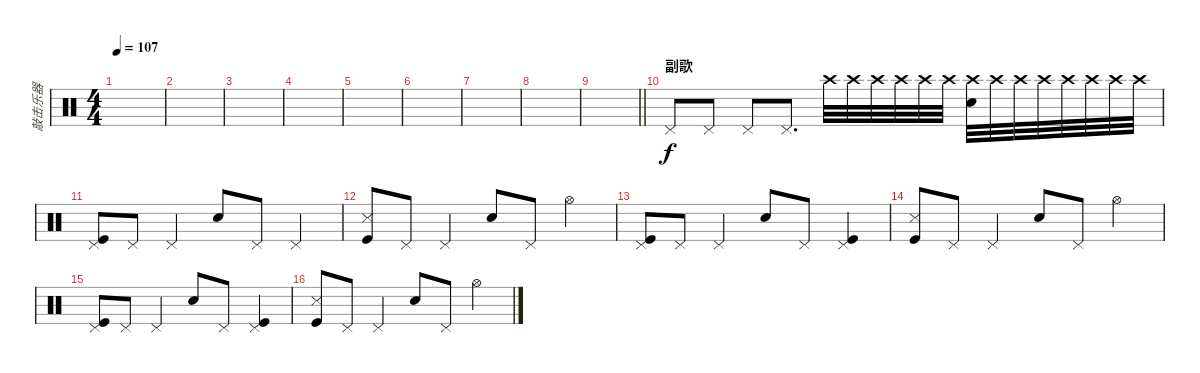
\track ("敲击乐器" "敲击乐器") {instrument percussion}
\staff {score}
\articulation defaults
\ts (4 4)
\tempo 107
\clef neutral
\ks c
|
|
|
|
|
|
|
|
\barLineRight lightlight
|
\section ("" "副歌")
"Pedal Hi-Hat (hit)".8{dy f} "Pedal Hi-Hat (hit)".8 "Pedal Hi-Hat (hit)".8 "Pedal Hi-Hat (hit)".8{d} "Crash high (hit)".32{volume 0} "Crash high (hit)".32{volume 16} "Crash high (hit)".32 "Crash high (hit)".32 "Crash high (hit)".32 "Crash high (hit)".32 ("Crash high (hit)" "Snare (hit) 2").32 "Crash high (hit)".32 "Crash high (hit)".32 "Crash high (hit)".32 "Crash high (hit)".32 "Crash high (hit)".32 "Crash high (hit)".32 "Crash high (hit)".32 |
("Kick (hit)" "Pedal Hi-Hat (hit)").8 "Pedal Hi-Hat (hit)".8 "Pedal Hi-Hat (hit)".4 "Snare (hit) 2".8 "Pedal Hi-Hat (hit)".8 "Pedal Hi-Hat (hit)".4 |
("Kick (hit)" "Snare (side stick) 3").8 "Pedal Hi-Hat (hit)".8 "Pedal Hi-Hat (hit)".4 "Snare (hit) 2".8 "Pedal Hi-Hat (hit)".8 "Hi-Hat (open)".4 |
("Kick (hit)" "Pedal Hi-Hat (hit)").8 "Pedal Hi-Hat (hit)".8 "Pedal Hi-Hat (hit)".4 "Snare (hit) 2".8 "Pedal Hi-Hat (hit)".8 ("Kick (hit)" "Pedal Hi-Hat (hit)").4 |
("Kick (hit)" "Snare (side stick) 3").8 "Pedal Hi-Hat (hit)".8 "Pedal Hi-Hat (hit)".4 "Snare (hit) 2".8 "Pedal Hi-Hat (hit)".8 "Hi-Hat (open)".4 |
("Kick (hit)" "Pedal Hi-Hat (hit)").8 "Pedal Hi-Hat (hit)".8 "Pedal Hi-Hat (hit)".4 "Snare (hit) 2".8 "Pedal Hi-Hat (hit)".8 ("Kick (hit)" "Pedal Hi-Hat (hit)").4 |
("Kick (hit)" "Snare (side stick) 3").8 "Pedal Hi-Hat (hit)".8 "Pedal Hi-Hat (hit)".4 "Snare (hit) 2".8 "Pedal Hi-Hat (hit)".8 "Hi-Hat (open)".4
